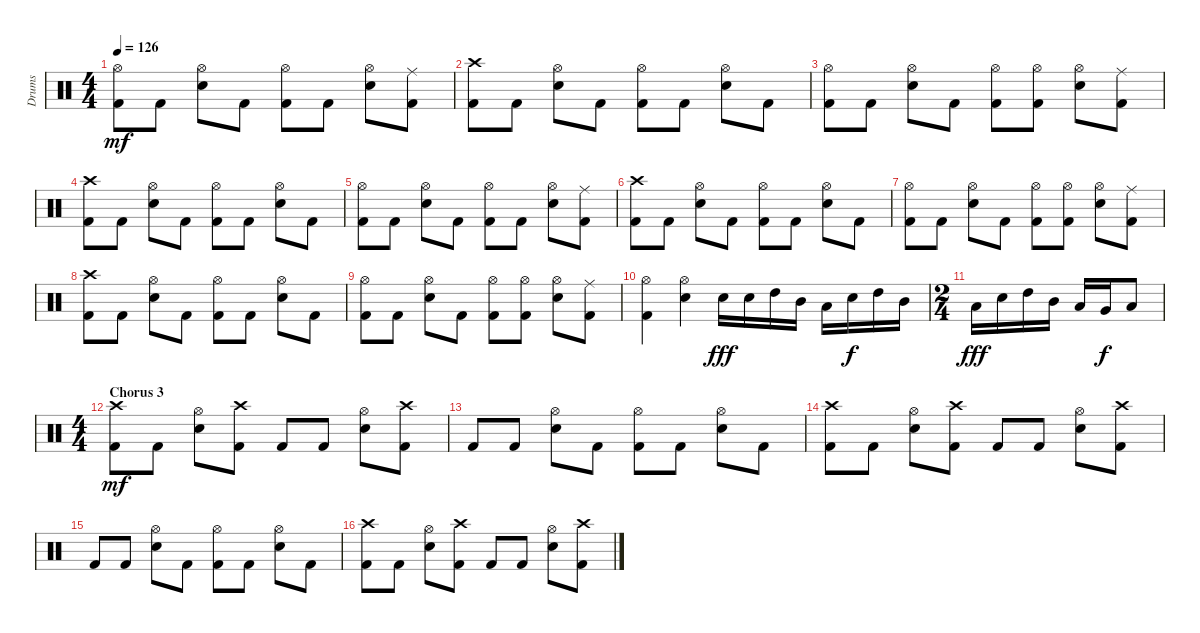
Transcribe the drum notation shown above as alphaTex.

\track ("Drums" "Drums") {instrument percussion}
\staff {score}
\articulation defaults
\ts (4 4)
\tempo 126
\clef neutral
\ks c
("Hi-Hat (open)" "Kick (hit) 2").8{dy mf} "Kick (hit) 2".8 ("Hi-Hat (open)" "Electric Snare (hit)").8 "Kick (hit) 2".8 ("Hi-Hat (open)" "Kick (hit) 2").8 "Kick (hit) 2".8 ("Hi-Hat (open)" "Electric Snare (hit)").8 ("Ride (middle)" "Kick (hit) 2").8 |
("Crash high (hit)" "Kick (hit) 2").8 "Kick (hit) 2".8 ("Hi-Hat (open)" "Electric Snare (hit)").8 "Kick (hit) 2".8 ("Hi-Hat (open)" "Kick (hit) 2").8 "Kick (hit) 2".8 ("Hi-Hat (open)" "Electric Snare (hit)").8 "Kick (hit) 2".8 |
("Hi-Hat (open)" "Kick (hit) 2").8 "Kick (hit) 2".8 ("Hi-Hat (open)" "Electric Snare (hit)").8 "Kick (hit) 2".8 ("Hi-Hat (open)" "Kick (hit) 2").8 ("Hi-Hat (open)" "Kick (hit) 2").8 ("Hi-Hat (open)" "Electric Snare (hit)").8 ("Ride (middle)" "Kick (hit) 2").8 |
("Crash high (hit)" "Kick (hit) 2").8 "Kick (hit) 2".8 ("Hi-Hat (open)" "Electric Snare (hit)").8 "Kick (hit) 2".8 ("Hi-Hat (open)" "Kick (hit) 2").8 "Kick (hit) 2".8 ("Hi-Hat (open)" "Electric Snare (hit)").8 "Kick (hit) 2".8 |
("Hi-Hat (open)" "Kick (hit) 2").8 "Kick (hit) 2".8 ("Hi-Hat (open)" "Electric Snare (hit)").8 "Kick (hit) 2".8 ("Hi-Hat (open)" "Kick (hit) 2").8 "Kick (hit) 2".8 ("Hi-Hat (open)" "Electric Snare (hit)").8 ("Ride (middle)" "Kick (hit) 2").8 |
("Crash high (hit)" "Kick (hit) 2").8 "Kick (hit) 2".8 ("Hi-Hat (open)" "Electric Snare (hit)").8 "Kick (hit) 2".8 ("Hi-Hat (open)" "Kick (hit) 2").8 "Kick (hit) 2".8 ("Hi-Hat (open)" "Electric Snare (hit)").8 "Kick (hit) 2".8 |
("Hi-Hat (open)" "Kick (hit) 2").8 "Kick (hit) 2".8 ("Hi-Hat (open)" "Electric Snare (hit)").8 "Kick (hit) 2".8 ("Hi-Hat (open)" "Kick (hit) 2").8 ("Hi-Hat (open)" "Kick (hit) 2").8 ("Hi-Hat (open)" "Electric Snare (hit)").8 ("Ride (middle)" "Kick (hit) 2").8 |
("Crash high (hit)" "Kick (hit) 2").8 "Kick (hit) 2".8 ("Hi-Hat (open)" "Electric Snare (hit)").8 "Kick (hit) 2".8 ("Hi-Hat (open)" "Kick (hit) 2").8 "Kick (hit) 2".8 ("Hi-Hat (open)" "Electric Snare (hit)").8 "Kick (hit) 2".8 |
("Hi-Hat (open)" "Kick (hit) 2").8 "Kick (hit) 2".8 ("Hi-Hat (open)" "Electric Snare (hit)").8 "Kick (hit) 2".8 ("Hi-Hat (open)" "Kick (hit) 2").8 ("Hi-Hat (open)" "Kick (hit) 2").8 ("Hi-Hat (open)" "Electric Snare (hit)").8 ("Ride (middle)" "Kick (hit) 2").8 |
("Hi-Hat (open)" "Kick (hit) 2").4 ("Hi-Hat (open)" "Electric Snare (hit)").4 "Electric Snare (hit)".16{dy fff} "Electric Snare (hit)".16 "High Tom (hit)".16 "Mid Tom (hit)".16 "Low Tom (hit)".16 "Electric Snare (hit)".16{dy f} "High Tom (hit)".16 "Mid Tom (hit)".16 |
\ts (2 4)
"Low Tom (hit)".16{dy fff} "Electric Snare (hit)".16 "High Tom (hit)".16 "Mid Tom (hit)".16 "Low Tom (hit)".16 "Very Low Tom (hit)".16{dy f} "Low Floor Tom (hit)".8 |
\ts (4 4)
\section ("" "Chorus 3")
("Crash high (hit)" "Kick (hit) 2").8{dy mf} "Kick (hit) 2".8 ("Hi-Hat (open)" "Electric Snare (hit)").8 ("Crash high (hit)" "Kick (hit) 2").8 "Kick (hit) 2".8 "Kick (hit) 2".8 ("Hi-Hat (open)" "Electric Snare (hit)").8 ("Crash high (hit)" "Kick (hit) 2").8 |
"Kick (hit) 2".8 "Kick (hit) 2".8 ("Hi-Hat (open)" "Electric Snare (hit)").8 "Kick (hit) 2".8 ("Hi-Hat (open)" "Kick (hit) 2").8 "Kick (hit) 2".8 ("Hi-Hat (open)" "Electric Snare (hit)").8 "Kick (hit) 2".8 |
("Crash high (hit)" "Kick (hit) 2").8 "Kick (hit) 2".8 ("Hi-Hat (open)" "Electric Snare (hit)").8 ("Crash high (hit)" "Kick (hit) 2").8 "Kick (hit) 2".8 "Kick (hit) 2".8 ("Hi-Hat (open)" "Electric Snare (hit)").8 ("Crash high (hit)" "Kick (hit) 2").8 |
"Kick (hit) 2".8 "Kick (hit) 2".8 ("Hi-Hat (open)" "Electric Snare (hit)").8 "Kick (hit) 2".8 ("Hi-Hat (open)" "Kick (hit) 2").8 "Kick (hit) 2".8 ("Hi-Hat (open)" "Electric Snare (hit)").8 "Kick (hit) 2".8 |
("Crash high (hit)" "Kick (hit) 2").8 "Kick (hit) 2".8 ("Hi-Hat (open)" "Electric Snare (hit)").8 ("Crash high (hit)" "Kick (hit) 2").8 "Kick (hit) 2".8 "Kick (hit) 2".8 ("Hi-Hat (open)" "Electric Snare (hit)").8 ("Crash high (hit)" "Kick (hit) 2").8
